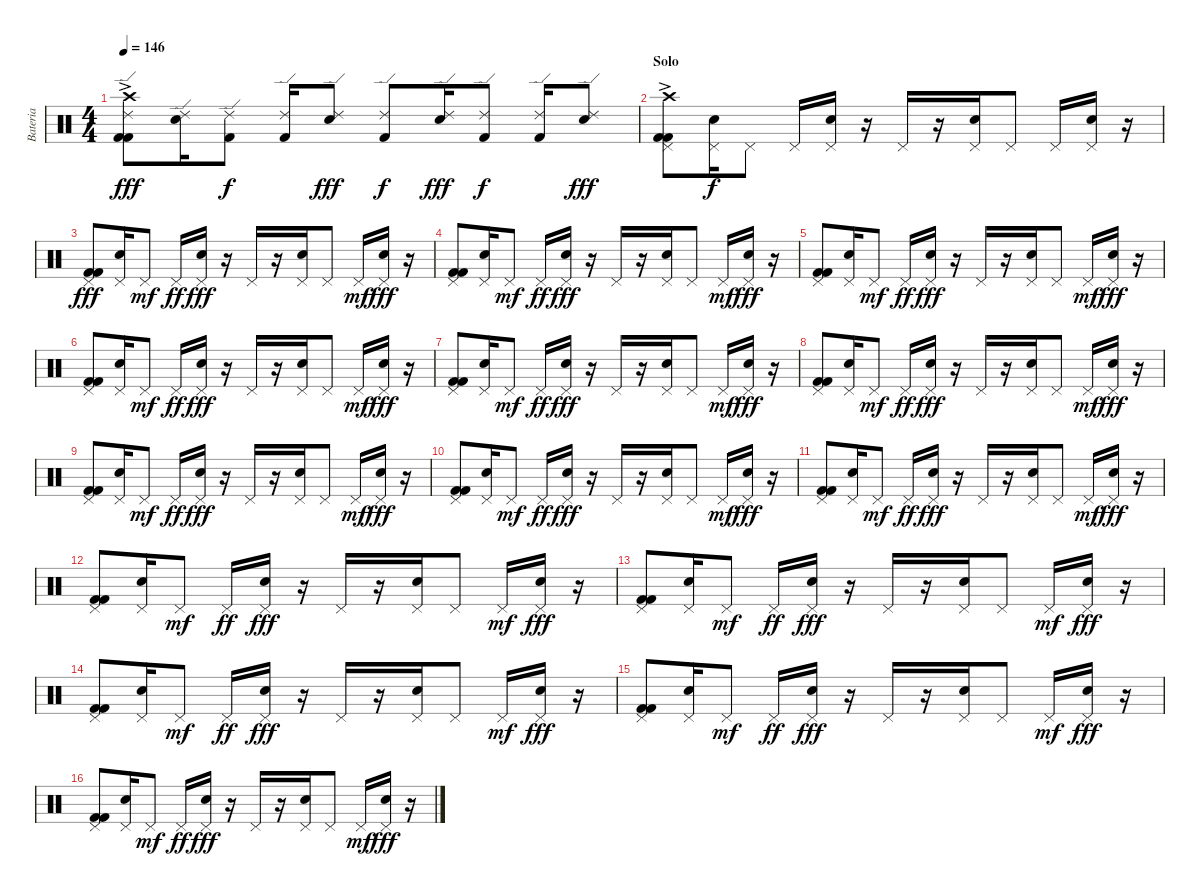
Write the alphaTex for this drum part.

\track ("Bateria" "Bateria") {instrument percussion}
\staff {score}
\articulation defaults
\ts (4 4)
\tempo 146
\clef neutral
\ks c
("Crash high (hit)"{ac} "Ride (edge) 2" "Kick (hit) 2" "Kick (hit) 2").8{dy fff} ("Ride (edge) 2" "Electric Snare (hit)").16 ("Ride (edge) 2" "Kick (hit) 2").8{dy f} ("Ride (edge) 2" "Kick (hit) 2").16 ("Ride (edge) 2" "Electric Snare (hit)").8{dy fff} ("Ride (edge) 2" "Kick (hit) 2").8{dy f} ("Ride (edge) 2" "Electric Snare (hit)").16{dy fff} ("Ride (edge) 2" "Kick (hit) 2").8{dy f} ("Ride (edge) 2" "Kick (hit) 2").16 ("Ride (edge) 2" "Electric Snare (hit)").8{dy fff} |
\section ("" "Solo")
("Crash high (hit)"{ac} "Pedal Hi-Hat (hit)" "Kick (hit) 2" "Kick (hit) 2").8 ("Pedal Hi-Hat (hit)" "Electric Snare (hit)").16{dy f} "Pedal Hi-Hat (hit)".8 "Pedal Hi-Hat (hit)".16 ("Pedal Hi-Hat (hit)" "Electric Snare (hit)").16 r.16 "Pedal Hi-Hat (hit)".16 r.16 ("Pedal Hi-Hat (hit)" "Electric Snare (hit)").16 "Pedal Hi-Hat (hit)".8 "Pedal Hi-Hat (hit)".16 ("Pedal Hi-Hat (hit)" "Electric Snare (hit)").16 r.16 |
("Pedal Hi-Hat (hit)" "Kick (hit) 2" "Kick (hit) 2").8{dy fff} ("Pedal Hi-Hat (hit)" "Electric Snare (hit)").16 "Pedal Hi-Hat (hit)".8{dy mf} "Pedal Hi-Hat (hit)".16{dy ff} ("Pedal Hi-Hat (hit)" "Electric Snare (hit)").16{dy fff} r.16 "Pedal Hi-Hat (hit)".16 r.16 ("Pedal Hi-Hat (hit)" "Electric Snare (hit)").16 "Pedal Hi-Hat (hit)".8 "Pedal Hi-Hat (hit)".16{dy mf} ("Pedal Hi-Hat (hit)" "Electric Snare (hit)").16{dy fff} r.16 |
("Pedal Hi-Hat (hit)" "Kick (hit) 2" "Kick (hit) 2").8 ("Pedal Hi-Hat (hit)" "Electric Snare (hit)").16 "Pedal Hi-Hat (hit)".8{dy mf} "Pedal Hi-Hat (hit)".16{dy ff} ("Pedal Hi-Hat (hit)" "Electric Snare (hit)").16{dy fff} r.16 "Pedal Hi-Hat (hit)".16 r.16 ("Pedal Hi-Hat (hit)" "Electric Snare (hit)").16 "Pedal Hi-Hat (hit)".8 "Pedal Hi-Hat (hit)".16{dy mf} ("Pedal Hi-Hat (hit)" "Electric Snare (hit)").16{dy fff} r.16 |
("Pedal Hi-Hat (hit)" "Kick (hit) 2" "Kick (hit) 2").8 ("Pedal Hi-Hat (hit)" "Electric Snare (hit)").16 "Pedal Hi-Hat (hit)".8{dy mf} "Pedal Hi-Hat (hit)".16{dy ff} ("Pedal Hi-Hat (hit)" "Electric Snare (hit)").16{dy fff} r.16 "Pedal Hi-Hat (hit)".16 r.16 ("Pedal Hi-Hat (hit)" "Electric Snare (hit)").16 "Pedal Hi-Hat (hit)".8 "Pedal Hi-Hat (hit)".16{dy mf} ("Pedal Hi-Hat (hit)" "Electric Snare (hit)").16{dy fff} r.16 |
("Pedal Hi-Hat (hit)" "Kick (hit) 2" "Kick (hit) 2").8 ("Pedal Hi-Hat (hit)" "Electric Snare (hit)").16 "Pedal Hi-Hat (hit)".8{dy mf} "Pedal Hi-Hat (hit)".16{dy ff} ("Pedal Hi-Hat (hit)" "Electric Snare (hit)").16{dy fff} r.16 "Pedal Hi-Hat (hit)".16 r.16 ("Pedal Hi-Hat (hit)" "Electric Snare (hit)").16 "Pedal Hi-Hat (hit)".8 "Pedal Hi-Hat (hit)".16{dy mf} ("Pedal Hi-Hat (hit)" "Electric Snare (hit)").16{dy fff} r.16 |
("Pedal Hi-Hat (hit)" "Kick (hit) 2" "Kick (hit) 2").8 ("Pedal Hi-Hat (hit)" "Electric Snare (hit)").16 "Pedal Hi-Hat (hit)".8{dy mf} "Pedal Hi-Hat (hit)".16{dy ff} ("Pedal Hi-Hat (hit)" "Electric Snare (hit)").16{dy fff} r.16 "Pedal Hi-Hat (hit)".16 r.16 ("Pedal Hi-Hat (hit)" "Electric Snare (hit)").16 "Pedal Hi-Hat (hit)".8 "Pedal Hi-Hat (hit)".16{dy mf} ("Pedal Hi-Hat (hit)" "Electric Snare (hit)").16{dy fff} r.16 |
("Pedal Hi-Hat (hit)" "Kick (hit) 2" "Kick (hit) 2").8 ("Pedal Hi-Hat (hit)" "Electric Snare (hit)").16 "Pedal Hi-Hat (hit)".8{dy mf} "Pedal Hi-Hat (hit)".16{dy ff} ("Pedal Hi-Hat (hit)" "Electric Snare (hit)").16{dy fff} r.16 "Pedal Hi-Hat (hit)".16 r.16 ("Pedal Hi-Hat (hit)" "Electric Snare (hit)").16 "Pedal Hi-Hat (hit)".8 "Pedal Hi-Hat (hit)".16{dy mf} ("Pedal Hi-Hat (hit)" "Electric Snare (hit)").16{dy fff} r.16 |
("Pedal Hi-Hat (hit)" "Kick (hit) 2" "Kick (hit) 2").8 ("Pedal Hi-Hat (hit)" "Electric Snare (hit)").16 "Pedal Hi-Hat (hit)".8{dy mf} "Pedal Hi-Hat (hit)".16{dy ff} ("Pedal Hi-Hat (hit)" "Electric Snare (hit)").16{dy fff} r.16 "Pedal Hi-Hat (hit)".16 r.16 ("Pedal Hi-Hat (hit)" "Electric Snare (hit)").16 "Pedal Hi-Hat (hit)".8 "Pedal Hi-Hat (hit)".16{dy mf} ("Pedal Hi-Hat (hit)" "Electric Snare (hit)").16{dy fff} r.16 |
("Pedal Hi-Hat (hit)" "Kick (hit) 2" "Kick (hit) 2").8 ("Pedal Hi-Hat (hit)" "Electric Snare (hit)").16 "Pedal Hi-Hat (hit)".8{dy mf} "Pedal Hi-Hat (hit)".16{dy ff} ("Pedal Hi-Hat (hit)" "Electric Snare (hit)").16{dy fff} r.16 "Pedal Hi-Hat (hit)".16 r.16 ("Pedal Hi-Hat (hit)" "Electric Snare (hit)").16 "Pedal Hi-Hat (hit)".8 "Pedal Hi-Hat (hit)".16{dy mf} ("Pedal Hi-Hat (hit)" "Electric Snare (hit)").16{dy fff} r.16 |
("Pedal Hi-Hat (hit)" "Kick (hit) 2" "Kick (hit) 2").8 ("Pedal Hi-Hat (hit)" "Electric Snare (hit)").16 "Pedal Hi-Hat (hit)".8{dy mf} "Pedal Hi-Hat (hit)".16{dy ff} ("Pedal Hi-Hat (hit)" "Electric Snare (hit)").16{dy fff} r.16 "Pedal Hi-Hat (hit)".16 r.16 ("Pedal Hi-Hat (hit)" "Electric Snare (hit)").16 "Pedal Hi-Hat (hit)".8 "Pedal Hi-Hat (hit)".16{dy mf} ("Pedal Hi-Hat (hit)" "Electric Snare (hit)").16{dy fff} r.16 |
("Pedal Hi-Hat (hit)" "Kick (hit) 2" "Kick (hit) 2").8 ("Pedal Hi-Hat (hit)" "Electric Snare (hit)").16 "Pedal Hi-Hat (hit)".8{dy mf} "Pedal Hi-Hat (hit)".16{dy ff} ("Pedal Hi-Hat (hit)" "Electric Snare (hit)").16{dy fff} r.16 "Pedal Hi-Hat (hit)".16 r.16 ("Pedal Hi-Hat (hit)" "Electric Snare (hit)").16 "Pedal Hi-Hat (hit)".8 "Pedal Hi-Hat (hit)".16{dy mf} ("Pedal Hi-Hat (hit)" "Electric Snare (hit)").16{dy fff} r.16 |
("Pedal Hi-Hat (hit)" "Kick (hit) 2" "Kick (hit) 2").8 ("Pedal Hi-Hat (hit)" "Electric Snare (hit)").16 "Pedal Hi-Hat (hit)".8{dy mf} "Pedal Hi-Hat (hit)".16{dy ff} ("Pedal Hi-Hat (hit)" "Electric Snare (hit)").16{dy fff} r.16 "Pedal Hi-Hat (hit)".16 r.16 ("Pedal Hi-Hat (hit)" "Electric Snare (hit)").16 "Pedal Hi-Hat (hit)".8 "Pedal Hi-Hat (hit)".16{dy mf} ("Pedal Hi-Hat (hit)" "Electric Snare (hit)").16{dy fff} r.16 |
("Pedal Hi-Hat (hit)" "Kick (hit) 2" "Kick (hit) 2").8 ("Pedal Hi-Hat (hit)" "Electric Snare (hit)").16 "Pedal Hi-Hat (hit)".8{dy mf} "Pedal Hi-Hat (hit)".16{dy ff} ("Pedal Hi-Hat (hit)" "Electric Snare (hit)").16{dy fff} r.16 "Pedal Hi-Hat (hit)".16 r.16 ("Pedal Hi-Hat (hit)" "Electric Snare (hit)").16 "Pedal Hi-Hat (hit)".8 "Pedal Hi-Hat (hit)".16{dy mf} ("Pedal Hi-Hat (hit)" "Electric Snare (hit)").16{dy fff} r.16 |
("Pedal Hi-Hat (hit)" "Kick (hit) 2" "Kick (hit) 2").8 ("Pedal Hi-Hat (hit)" "Electric Snare (hit)").16 "Pedal Hi-Hat (hit)".8{dy mf} "Pedal Hi-Hat (hit)".16{dy ff} ("Pedal Hi-Hat (hit)" "Electric Snare (hit)").16{dy fff} r.16 "Pedal Hi-Hat (hit)".16 r.16 ("Pedal Hi-Hat (hit)" "Electric Snare (hit)").16 "Pedal Hi-Hat (hit)".8 "Pedal Hi-Hat (hit)".16{dy mf} ("Pedal Hi-Hat (hit)" "Electric Snare (hit)").16{dy fff} r.16 |
("Pedal Hi-Hat (hit)" "Kick (hit) 2" "Kick (hit) 2").8 ("Pedal Hi-Hat (hit)" "Electric Snare (hit)").16 "Pedal Hi-Hat (hit)".8{dy mf} "Pedal Hi-Hat (hit)".16{dy ff} ("Pedal Hi-Hat (hit)" "Electric Snare (hit)").16{dy fff} r.16 "Pedal Hi-Hat (hit)".16 r.16 ("Pedal Hi-Hat (hit)" "Electric Snare (hit)").16 "Pedal Hi-Hat (hit)".8 "Pedal Hi-Hat (hit)".16{dy mf} ("Pedal Hi-Hat (hit)" "Electric Snare (hit)").16{dy fff} r.16
